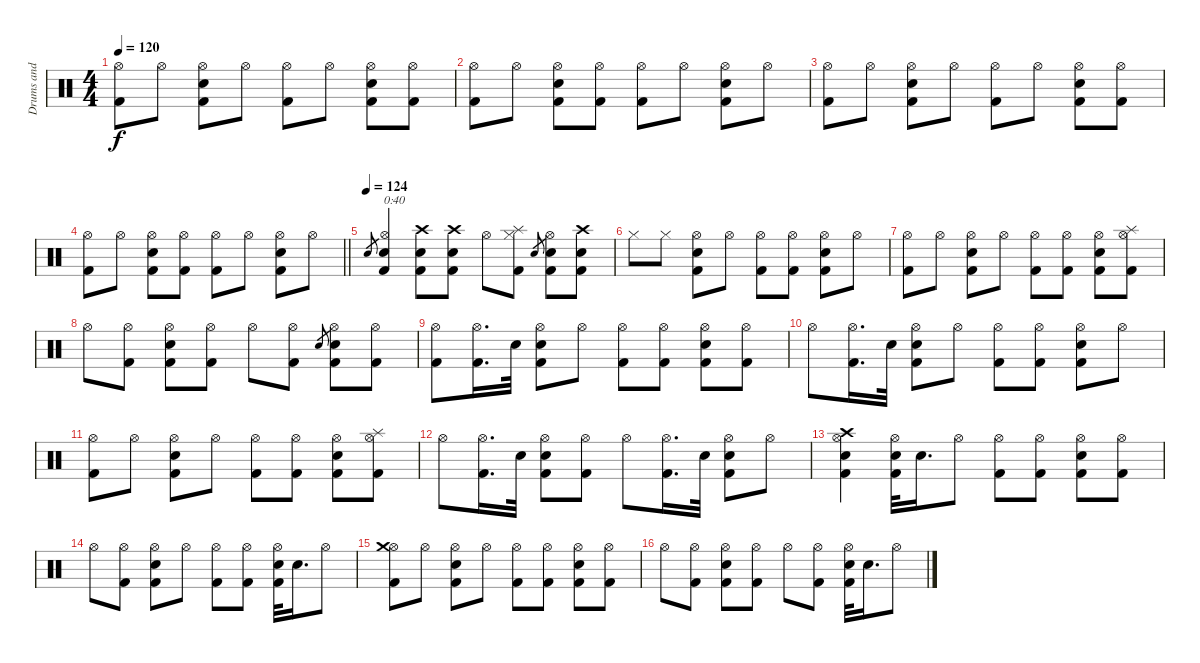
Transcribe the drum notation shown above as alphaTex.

\track ("Drums and Percussie" "Drums and ") {instrument percussion}
\staff {score}
\articulation defaults
\ts (4 4)
\tempo 120
\clef neutral
\ks c
("Kick (hit) 2" "Hi-Hat (open)").8{dy f} "Hi-Hat (open)".8 ("Hi-Hat (open)" "Snare (hit) 2" "Kick (hit) 2").8 "Hi-Hat (open)".8 ("Kick (hit) 2" "Hi-Hat (open)").8 "Hi-Hat (open)".8 ("Snare (hit) 2" "Kick (hit) 2" "Hi-Hat (open)").8 ("Kick (hit) 2" "Hi-Hat (open)").8 |
("Kick (hit) 2" "Hi-Hat (open)").8 "Hi-Hat (open)".8 ("Snare (hit) 2" "Kick (hit) 2" "Hi-Hat (open)").8 ("Hi-Hat (open)" "Kick (hit) 2").8 ("Kick (hit) 2" "Hi-Hat (open)").8 "Hi-Hat (open)".8 ("Hi-Hat (open)" "Kick (hit) 2" "Snare (hit) 2").8 "Hi-Hat (open)".8 |
("Kick (hit) 2" "Hi-Hat (open)").8 "Hi-Hat (open)".8 ("Snare (hit) 2" "Hi-Hat (open)" "Kick (hit) 2").8 "Hi-Hat (open)".8 ("Kick (hit) 2" "Hi-Hat (open)").8 "Hi-Hat (open)".8 ("Hi-Hat (open)" "Snare (hit) 2" "Kick (hit) 2").8 ("Kick (hit) 2" "Hi-Hat (open)").8 |
\barLineRight lightlight
("Hi-Hat (open)" "Kick (hit) 2").8 "Hi-Hat (open)".8 ("Kick (hit) 2" "Snare (hit) 2" "Hi-Hat (open)").8 ("Hi-Hat (open)" "Kick (hit) 2").8 ("Hi-Hat (open)" "Kick (hit) 2").8 "Hi-Hat (open)".8 ("Kick (hit) 2" "Snare (hit) 2" "Hi-Hat (open)").8 "Hi-Hat (open)".8 |
\tempo (124)
"Snare (hit) 2".8{gr} ("Hi-Hat (open)" "Snare (hit) 2" "Kick (hit) 2").4{txt "0:40"} ("Crash high (hit)" "Kick (hit) 2" "Snare (hit) 2").8 ("Crash high (hit)" "Kick (hit) 2" "Snare (hit) 2").8 "Hi-Hat (open)".8 ("Kick (hit) 2" "Hi-Hat (closed)" "Splash (hit)").8 "Snare (hit) 2".8{gr} ("Kick (hit) 2" "Snare (hit) 2" "Hi-Hat (open)").8 ("Snare (hit) 2" "Crash high (hit)" "Kick (hit) 2").8 |
"Hi-Hat (closed)".8 "Hi-Hat (closed)".8 ("Snare (hit) 2" "Kick (hit) 2" "Hi-Hat (open)").8 "Hi-Hat (open)".8 ("Hi-Hat (open)" "Kick (hit) 2").8 ("Kick (hit) 2" "Hi-Hat (open)").8 ("Hi-Hat (open)" "Snare (hit) 2" "Kick (hit) 2").8 "Hi-Hat (open)".8 |
("Hi-Hat (open)" "Kick (hit) 2").8 "Hi-Hat (open)".8 ("Snare (hit) 2" "Kick (hit) 2" "Hi-Hat (open)").8 "Hi-Hat (open)".8 ("Hi-Hat (open)" "Kick (hit) 2").8 ("Hi-Hat (open)" "Kick (hit) 2").8 ("Snare (hit) 2" "Hi-Hat (open)" "Kick (hit) 2").8 ("Hi-Hat (open)" "Splash (hit)" "Kick (hit) 2").8 |
"Hi-Hat (open)".8 ("Kick (hit) 2" "Hi-Hat (open)").8 ("Snare (hit) 2" "Hi-Hat (open)" "Kick (hit) 2").8 ("Kick (hit) 2" "Hi-Hat (open)").8 "Hi-Hat (open)".8 ("Hi-Hat (open)" "Kick (hit) 2").8 "Snare (hit) 2".8{gr} ("Snare (hit) 2" "Hi-Hat (open)" "Kick (hit) 2").8 ("Kick (hit) 2" "Hi-Hat (open)").8 |
("Hi-Hat (open)" "Kick (hit) 2").8 ("Hi-Hat (open)" "Kick (hit) 2").16{d} "Snare (hit) 2".32 ("Snare (hit) 2" "Kick (hit) 2" "Hi-Hat (open)").8 "Hi-Hat (open)".8 ("Hi-Hat (open)" "Kick (hit) 2").8 ("Hi-Hat (open)" "Kick (hit) 2").8 ("Kick (hit) 2" "Hi-Hat (open)" "Snare (hit) 2").8 ("Kick (hit) 2" "Hi-Hat (open)").8 |
"Hi-Hat (open)".8 ("Hi-Hat (open)" "Kick (hit) 2").16{d} "Snare (hit) 2".32 ("Snare (hit) 2" "Hi-Hat (open)" "Kick (hit) 2").8 "Hi-Hat (open)".8 ("Hi-Hat (open)" "Kick (hit) 2").8 ("Kick (hit) 2" "Hi-Hat (open)").8 ("Hi-Hat (open)" "Kick (hit) 2" "Snare (hit) 2").8 "Hi-Hat (open)".8 |
("Kick (hit) 2" "Hi-Hat (open)").8 "Hi-Hat (open)".8 ("Hi-Hat (open)" "Kick (hit) 2" "Snare (hit) 2").8 "Hi-Hat (open)".8 ("Hi-Hat (open)" "Kick (hit) 2").8 ("Hi-Hat (open)" "Kick (hit) 2").8 ("Hi-Hat (open)" "Kick (hit) 2" "Snare (hit) 2").8 ("Kick (hit) 2" "Hi-Hat (open)" "Splash (hit)").8 |
"Hi-Hat (open)".8 ("Kick (hit) 2" "Hi-Hat (open)").16{d} "Snare (hit) 2".32 ("Kick (hit) 2" "Hi-Hat (open)" "Snare (hit) 2").8 ("Hi-Hat (open)" "Kick (hit) 2").8 "Hi-Hat (open)".8 ("Kick (hit) 2" "Hi-Hat (open)").16{d} "Snare (hit) 2".32 ("Snare (hit) 2" "Hi-Hat (open)" "Kick (hit) 2").8 "Hi-Hat (open)".8 |
("Snare (hit) 2" "Hi-Hat (open)" "Crash high (hit)" "Kick (hit) 2").4 ("Snare (hit) 2" "Hi-Hat (open)" "Kick (hit) 2").32 "Snare (hit) 2".16{d} "Hi-Hat (open)".8 ("Kick (hit) 2" "Hi-Hat (open)").8 ("Kick (hit) 2" "Hi-Hat (open)").8 ("Snare (hit) 2" "Hi-Hat (open)" "Kick (hit) 2").8 ("Hi-Hat (open)" "Kick (hit) 2").8 |
"Hi-Hat (open)".8 ("Hi-Hat (open)" "Kick (hit) 2").8 ("Snare (hit) 2" "Kick (hit) 2" "Hi-Hat (open)").8 "Hi-Hat (open)".8 ("Kick (hit) 2" "Hi-Hat (open)").8 ("Hi-Hat (open)" "Kick (hit) 2").8 ("Snare (hit) 2" "Kick (hit) 2" "Hi-Hat (open)").32 "Snare (hit) 2".16{d} "Hi-Hat (open)".8 |
("Hi-Hat (open)" "Kick (hit) 2" "Crash medium (hit)").8 "Hi-Hat (open)".8 ("Snare (hit) 2" "Hi-Hat (open)" "Kick (hit) 2").8 "Hi-Hat (open)".8 ("Kick (hit) 2" "Hi-Hat (open)").8 ("Kick (hit) 2" "Hi-Hat (open)").8 ("Snare (hit) 2" "Kick (hit) 2" "Hi-Hat (open)").8 ("Hi-Hat (open)" "Kick (hit) 2").8 |
"Hi-Hat (open)".8 ("Hi-Hat (open)" "Kick (hit) 2").8 ("Hi-Hat (open)" "Kick (hit) 2" "Snare (hit) 2").8 ("Hi-Hat (open)" "Kick (hit) 2").8 "Hi-Hat (open)".8 ("Hi-Hat (open)" "Kick (hit) 2").8 ("Snare (hit) 2" "Kick (hit) 2" "Hi-Hat (open)").32 "Snare (hit) 2".16{d} "Hi-Hat (open)".8
